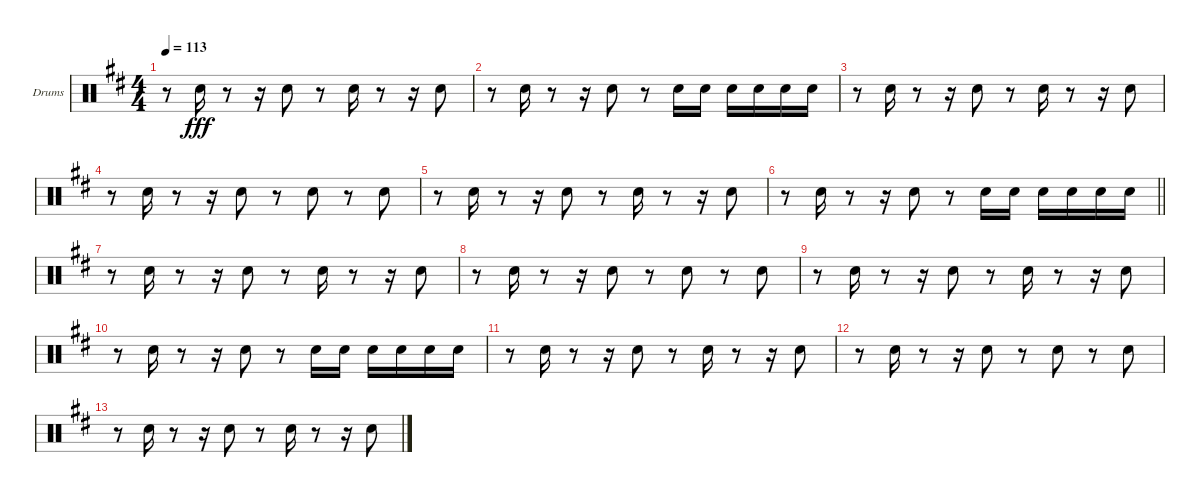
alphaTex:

\bracketExtendMode groupsimilarinstruments
\firstSystemTrackNameOrientation horizontal
\otherSystemsTrackNameOrientation horizontal
\track ("Snare" "Drums") {instrument percussion}
\staff {score}
\articulation defaults
\ts (4 4)
\tempo 113
\clef neutral
\scale
0.333333
\ks d
r.8{dy fff} "Snare (hit) 2".16 r.8 r.16 "Snare (hit) 2".8 r.8 "Snare (hit) 2".16 r.8 r.16 "Snare (hit) 2".8 |
\scale
0.333333 r.8 "Snare (hit) 2".16 r.8 r.16 "Snare (hit) 2".8 r.8 "Snare (hit) 2".16 "Snare (hit) 2".16 "Snare (hit) 2".16 "Snare (hit) 2".16 "Snare (hit) 2".16 "Snare (hit) 2".16 |
\scale
0.333333 r.8 "Snare (hit) 2".16 r.8 r.16 "Snare (hit) 2".8 r.8 "Snare (hit) 2".16 r.8 r.16 "Snare (hit) 2".8 |
\scale
0.333333 r.8 "Snare (hit) 2".16 r.8 r.16 "Snare (hit) 2".8 r.8 "Snare (hit) 2".8 r.8 "Snare (hit) 2".8 |
\scale
0.333333 r.8 "Snare (hit) 2".16 r.8 r.16 "Snare (hit) 2".8 r.8 "Snare (hit) 2".16 r.8 r.16 "Snare (hit) 2".8 |
\scale
0.333333
\barLineRight lightlight
r.8 "Snare (hit) 2".16 r.8 r.16 "Snare (hit) 2".8 r.8 "Snare (hit) 2".16 "Snare (hit) 2".16 "Snare (hit) 2".16 "Snare (hit) 2".16 "Snare (hit) 2".16 "Snare (hit) 2".16 |
\scale
0.333333 r.8 "Snare (hit) 2".16 r.8 r.16 "Snare (hit) 2".8 r.8 "Snare (hit) 2".16 r.8 r.16 "Snare (hit) 2".8 |
\scale
0.333333 r.8 "Snare (hit) 2".16 r.8 r.16 "Snare (hit) 2".8 r.8 "Snare (hit) 2".8 r.8 "Snare (hit) 2".8 |
\scale
0.333333 r.8 "Snare (hit) 2".16 r.8 r.16 "Snare (hit) 2".8 r.8 "Snare (hit) 2".16 r.8 r.16 "Snare (hit) 2".8 |
\scale
0.333333 r.8 "Snare (hit) 2".16 r.8 r.16 "Snare (hit) 2".8 r.8 "Snare (hit) 2".16 "Snare (hit) 2".16 "Snare (hit) 2".16 "Snare (hit) 2".16 "Snare (hit) 2".16 "Snare (hit) 2".16 |
\scale
0.333333 r.8 "Snare (hit) 2".16 r.8 r.16 "Snare (hit) 2".8 r.8 "Snare (hit) 2".16 r.8 r.16 "Snare (hit) 2".8 |
r.8 "Snare (hit) 2".16 r.8 r.16 "Snare (hit) 2".8 r.8 "Snare (hit) 2".8 r.8 "Snare (hit) 2".8 |
r.8 "Snare (hit) 2".16 r.8 r.16 "Snare (hit) 2".8 r.8 "Snare (hit) 2".16 r.8 r.16 "Snare (hit) 2".8
